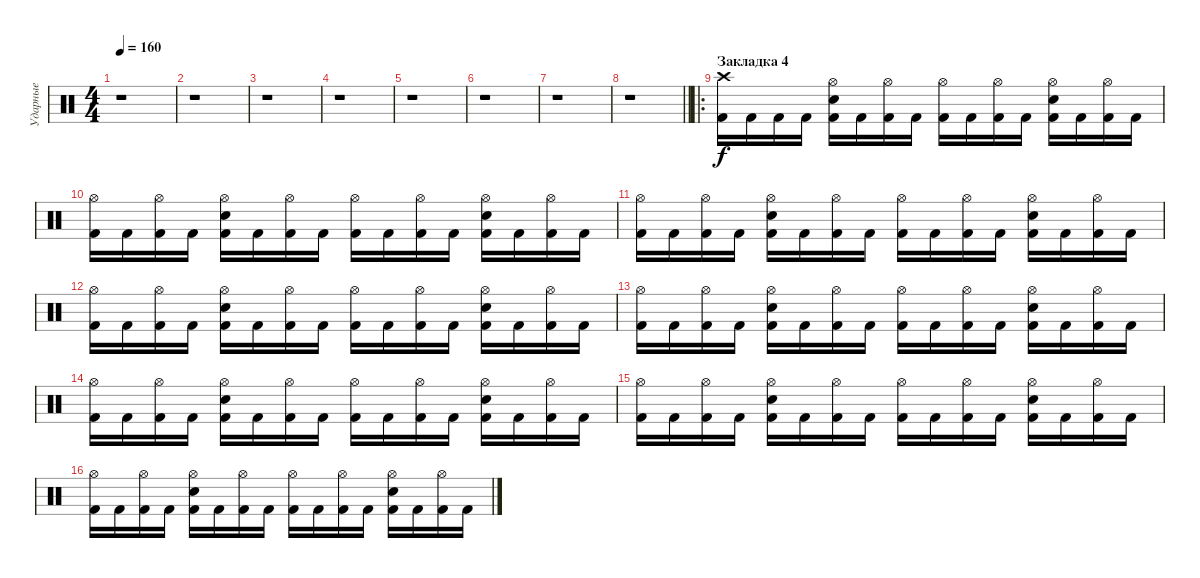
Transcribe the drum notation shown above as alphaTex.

\track ("Ударные" "Ударные") {instrument percussion}
\staff {score}
\articulation defaults
\ts (4 4)
\tempo 160
\clef neutral
\ks c
r.1{dy f} |
r.1 |
r.1 |
r.1 |
r.1 |
r.1 |
r.1 |
\barLineRight lightlight
r.1 |
\ro
\section ("" "Закладка 4")
("Crash high (hit)" "Kick (hit) 2").16 "Kick (hit) 2".16 "Kick (hit) 2".16 "Kick (hit) 2".16 ("Electric Snare (hit)" "Hi-Hat (open)" "Kick (hit) 2").16 "Kick (hit) 2".16 ("Hi-Hat (open)" "Kick (hit) 2").16 "Kick (hit) 2".16 ("Hi-Hat (open)" "Kick (hit) 2").16 "Kick (hit) 2".16 ("Hi-Hat (open)" "Kick (hit) 2").16 "Kick (hit) 2".16 ("Electric Snare (hit)" "Hi-Hat (open)" "Kick (hit) 2").16 "Kick (hit) 2".16 ("Hi-Hat (open)" "Kick (hit) 2").16 "Kick (hit) 2".16 |
("Hi-Hat (open)" "Kick (hit) 2").16 "Kick (hit) 2".16 ("Hi-Hat (open)" "Kick (hit) 2").16 "Kick (hit) 2".16 ("Electric Snare (hit)" "Hi-Hat (open)" "Kick (hit) 2").16 "Kick (hit) 2".16 ("Hi-Hat (open)" "Kick (hit) 2").16 "Kick (hit) 2".16 ("Hi-Hat (open)" "Kick (hit) 2").16 "Kick (hit) 2".16 ("Hi-Hat (open)" "Kick (hit) 2").16 "Kick (hit) 2".16 ("Electric Snare (hit)" "Hi-Hat (open)" "Kick (hit) 2").16 "Kick (hit) 2".16 ("Hi-Hat (open)" "Kick (hit) 2").16 "Kick (hit) 2".16 |
("Hi-Hat (open)" "Kick (hit) 2").16 "Kick (hit) 2".16 ("Hi-Hat (open)" "Kick (hit) 2").16 "Kick (hit) 2".16 ("Electric Snare (hit)" "Hi-Hat (open)" "Kick (hit) 2").16 "Kick (hit) 2".16 ("Hi-Hat (open)" "Kick (hit) 2").16 "Kick (hit) 2".16 ("Hi-Hat (open)" "Kick (hit) 2").16 "Kick (hit) 2".16 ("Hi-Hat (open)" "Kick (hit) 2").16 "Kick (hit) 2".16 ("Electric Snare (hit)" "Hi-Hat (open)" "Kick (hit) 2").16 "Kick (hit) 2".16 ("Hi-Hat (open)" "Kick (hit) 2").16 "Kick (hit) 2".16 |
("Hi-Hat (open)" "Kick (hit) 2").16 "Kick (hit) 2".16 ("Hi-Hat (open)" "Kick (hit) 2").16 "Kick (hit) 2".16 ("Electric Snare (hit)" "Hi-Hat (open)" "Kick (hit) 2").16 "Kick (hit) 2".16 ("Hi-Hat (open)" "Kick (hit) 2").16 "Kick (hit) 2".16 ("Hi-Hat (open)" "Kick (hit) 2").16 "Kick (hit) 2".16 ("Hi-Hat (open)" "Kick (hit) 2").16 "Kick (hit) 2".16 ("Electric Snare (hit)" "Hi-Hat (open)" "Kick (hit) 2").16 "Kick (hit) 2".16 ("Hi-Hat (open)" "Kick (hit) 2").16 "Kick (hit) 2".16 |
("Hi-Hat (open)" "Kick (hit) 2").16 "Kick (hit) 2".16 ("Hi-Hat (open)" "Kick (hit) 2").16 "Kick (hit) 2".16 ("Electric Snare (hit)" "Hi-Hat (open)" "Kick (hit) 2").16 "Kick (hit) 2".16 ("Hi-Hat (open)" "Kick (hit) 2").16 "Kick (hit) 2".16 ("Hi-Hat (open)" "Kick (hit) 2").16 "Kick (hit) 2".16 ("Hi-Hat (open)" "Kick (hit) 2").16 "Kick (hit) 2".16 ("Electric Snare (hit)" "Hi-Hat (open)" "Kick (hit) 2").16 "Kick (hit) 2".16 ("Hi-Hat (open)" "Kick (hit) 2").16 "Kick (hit) 2".16 |
("Hi-Hat (open)" "Kick (hit) 2").16 "Kick (hit) 2".16 ("Hi-Hat (open)" "Kick (hit) 2").16 "Kick (hit) 2".16 ("Electric Snare (hit)" "Hi-Hat (open)" "Kick (hit) 2").16 "Kick (hit) 2".16 ("Hi-Hat (open)" "Kick (hit) 2").16 "Kick (hit) 2".16 ("Hi-Hat (open)" "Kick (hit) 2").16 "Kick (hit) 2".16 ("Hi-Hat (open)" "Kick (hit) 2").16 "Kick (hit) 2".16 ("Electric Snare (hit)" "Hi-Hat (open)" "Kick (hit) 2").16 "Kick (hit) 2".16 ("Hi-Hat (open)" "Kick (hit) 2").16 "Kick (hit) 2".16 |
("Hi-Hat (open)" "Kick (hit) 2").16 "Kick (hit) 2".16 ("Hi-Hat (open)" "Kick (hit) 2").16 "Kick (hit) 2".16 ("Electric Snare (hit)" "Hi-Hat (open)" "Kick (hit) 2").16 "Kick (hit) 2".16 ("Hi-Hat (open)" "Kick (hit) 2").16 "Kick (hit) 2".16 ("Hi-Hat (open)" "Kick (hit) 2").16 "Kick (hit) 2".16 ("Hi-Hat (open)" "Kick (hit) 2").16 "Kick (hit) 2".16 ("Electric Snare (hit)" "Hi-Hat (open)" "Kick (hit) 2").16 "Kick (hit) 2".16 ("Hi-Hat (open)" "Kick (hit) 2").16 "Kick (hit) 2".16 |
("Hi-Hat (open)" "Kick (hit) 2").16 "Kick (hit) 2".16 ("Hi-Hat (open)" "Kick (hit) 2").16 "Kick (hit) 2".16 ("Electric Snare (hit)" "Hi-Hat (open)" "Kick (hit) 2").16 "Kick (hit) 2".16 ("Hi-Hat (open)" "Kick (hit) 2").16 "Kick (hit) 2".16 ("Hi-Hat (open)" "Kick (hit) 2").16 "Kick (hit) 2".16 ("Hi-Hat (open)" "Kick (hit) 2").16 "Kick (hit) 2".16 ("Electric Snare (hit)" "Hi-Hat (open)" "Kick (hit) 2").16 "Kick (hit) 2".16 ("Hi-Hat (open)" "Kick (hit) 2").16 "Kick (hit) 2".16
